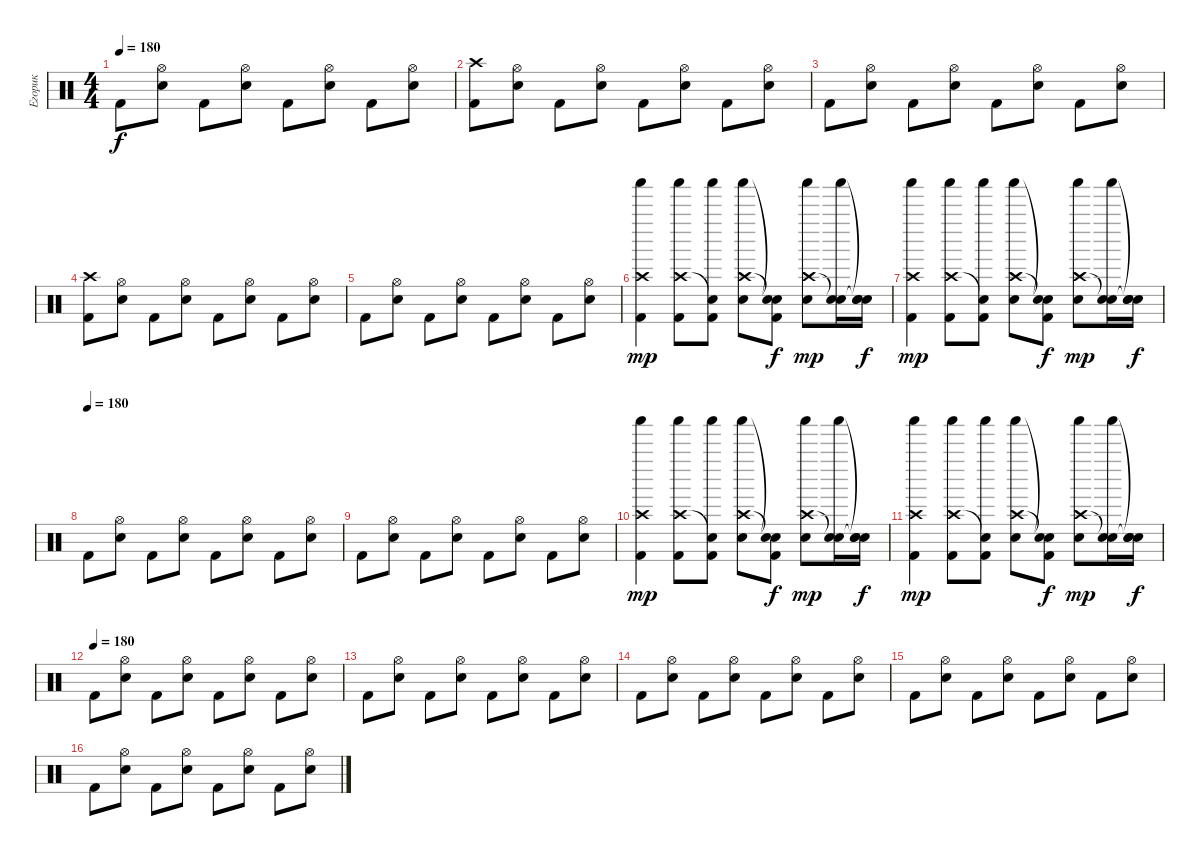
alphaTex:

\track ("Егорик" "Егорик") {instrument percussion}
\staff {score}
\articulation defaults
\ts (4 4)
\tempo 180
\clef neutral
\ks c "Kick (hit) 2".8{dy f}
("Hi-Hat (open)" "Electric Snare (hit)").8 "Kick (hit) 2".8 ("Hi-Hat (open)" "Electric Snare (hit)").8 "Kick (hit) 2".8 ("Hi-Hat (open)" "Electric Snare (hit)").8 "Kick (hit) 2".8 ("Hi-Hat (open)" "Electric Snare (hit)").8 |
("Crash high (hit)" "Kick (hit) 2").8 ("Hi-Hat (open)" "Electric Snare (hit)").8 "Kick (hit) 2".8 ("Hi-Hat (open)" "Electric Snare (hit)").8 "Kick (hit) 2".8 ("Hi-Hat (open)" "Electric Snare (hit)").8 "Kick (hit) 2".8 ("Hi-Hat (open)" "Electric Snare (hit)").8 |
"Kick (hit) 2".8 ("Hi-Hat (open)" "Electric Snare (hit)").8 "Kick (hit) 2".8 ("Hi-Hat (open)" "Electric Snare (hit)").8 "Kick (hit) 2".8 ("Hi-Hat (open)" "Electric Snare (hit)").8 "Kick (hit) 2".8 ("Hi-Hat (open)" "Electric Snare (hit)").8 |
("Crash high (hit)" "Kick (hit) 2").8 ("Hi-Hat (open)" "Electric Snare (hit)").8 "Kick (hit) 2".8 ("Hi-Hat (open)" "Electric Snare (hit)").8 "Kick (hit) 2".8 ("Hi-Hat (open)" "Electric Snare (hit)").8 "Kick (hit) 2".8 ("Hi-Hat (open)" "Electric Snare (hit)").8 |
"Kick (hit) 2".8 ("Hi-Hat (open)" "Electric Snare (hit)").8 "Kick (hit) 2".8 ("Hi-Hat (open)" "Electric Snare (hit)").8 "Kick (hit) 2".8 ("Hi-Hat (open)" "Electric Snare (hit)").8 "Kick (hit) 2".8 ("Hi-Hat (open)" "Electric Snare (hit)").8 |
("Crash high (hit)" "Shaker (hit)" "Kick (hit) 2").4{dy mp} ("Crash high (hit)" "Shaker (hit)" "Kick (hit) 2").8 ("Snare (hit)"{t} "Shaker (hit)" "Kick (hit) 2").8 ("Crash high (hit)" "Shaker (hit)" "Snare (hit) 2").8 ("Snare (hit)"{t} "Snare (hit)"{t} "Kick (hit) 2").8{dy f} ("Crash high (hit)" "Shaker (hit)" "Snare (hit) 2").8{dy mp} ("Snare (hit)"{t} "Shaker (hit)" "Snare (hit) 2").16 ("Snare (hit)"{t} "Snare (hit)"{t} "Snare (hit) 2").16{dy f} |
("Crash high (hit)" "Shaker (hit)" "Kick (hit) 2").4{dy mp} ("Crash high (hit)" "Shaker (hit)" "Kick (hit) 2").8 ("Snare (hit)"{t} "Shaker (hit)" "Kick (hit) 2").8 ("Crash high (hit)" "Shaker (hit)" "Snare (hit) 2").8 ("Snare (hit)"{t} "Snare (hit)"{t} "Kick (hit) 2").8{dy f} ("Crash high (hit)" "Shaker (hit)" "Snare (hit) 2").8{dy mp} ("Snare (hit)"{t} "Shaker (hit)" "Snare (hit) 2").16 ("Snare (hit)"{t} "Snare (hit)"{t} "Snare (hit) 2").16{dy f} |
\tempo (180)
"Kick (hit) 2".8 ("Hi-Hat (open)" "Electric Snare (hit)").8 "Kick (hit) 2".8 ("Hi-Hat (open)" "Electric Snare (hit)").8 "Kick (hit) 2".8 ("Hi-Hat (open)" "Electric Snare (hit)").8 "Kick (hit) 2".8 ("Hi-Hat (open)" "Electric Snare (hit)").8 |
"Kick (hit) 2".8 ("Hi-Hat (open)" "Electric Snare (hit)").8 "Kick (hit) 2".8 ("Hi-Hat (open)" "Electric Snare (hit)").8 "Kick (hit) 2".8 ("Hi-Hat (open)" "Electric Snare (hit)").8 "Kick (hit) 2".8 ("Hi-Hat (open)" "Electric Snare (hit)").8 |
("Crash high (hit)" "Shaker (hit)" "Kick (hit) 2").4{dy mp} ("Crash high (hit)" "Shaker (hit)" "Kick (hit) 2").8 ("Snare (hit)"{t} "Shaker (hit)" "Kick (hit) 2").8 ("Crash high (hit)" "Shaker (hit)" "Snare (hit) 2").8 ("Snare (hit)"{t} "Snare (hit)"{t} "Kick (hit) 2").8{dy f} ("Crash high (hit)" "Shaker (hit)" "Snare (hit) 2").8{dy mp} ("Snare (hit)"{t} "Shaker (hit)" "Snare (hit) 2").16 ("Snare (hit)"{t} "Snare (hit)"{t} "Snare (hit) 2").16{dy f} |
("Crash high (hit)" "Shaker (hit)" "Kick (hit) 2").4{dy mp} ("Crash high (hit)" "Shaker (hit)" "Kick (hit) 2").8 ("Snare (hit)"{t} "Shaker (hit)" "Kick (hit) 2").8 ("Crash high (hit)" "Shaker (hit)" "Snare (hit) 2").8 ("Snare (hit)"{t} "Snare (hit)"{t} "Kick (hit) 2").8{dy f} ("Crash high (hit)" "Shaker (hit)" "Snare (hit) 2").8{dy mp} ("Snare (hit)"{t} "Shaker (hit)" "Snare (hit) 2").16 ("Snare (hit)"{t} "Snare (hit)"{t} "Snare (hit) 2").16{dy f} |
\tempo (180)
"Kick (hit) 2".8 ("Hi-Hat (open)" "Electric Snare (hit)").8 "Kick (hit) 2".8 ("Hi-Hat (open)" "Electric Snare (hit)").8 "Kick (hit) 2".8 ("Hi-Hat (open)" "Electric Snare (hit)").8 "Kick (hit) 2".8 ("Hi-Hat (open)" "Electric Snare (hit)").8 |
"Kick (hit) 2".8 ("Hi-Hat (open)" "Electric Snare (hit)").8 "Kick (hit) 2".8 ("Hi-Hat (open)" "Electric Snare (hit)").8 "Kick (hit) 2".8 ("Hi-Hat (open)" "Electric Snare (hit)").8 "Kick (hit) 2".8 ("Hi-Hat (open)" "Electric Snare (hit)").8 |
"Kick (hit) 2".8 ("Hi-Hat (open)" "Electric Snare (hit)").8 "Kick (hit) 2".8 ("Hi-Hat (open)" "Electric Snare (hit)").8 "Kick (hit) 2".8 ("Hi-Hat (open)" "Electric Snare (hit)").8 "Kick (hit) 2".8 ("Hi-Hat (open)" "Electric Snare (hit)").8 |
"Kick (hit) 2".8 ("Hi-Hat (open)" "Electric Snare (hit)").8 "Kick (hit) 2".8 ("Hi-Hat (open)" "Electric Snare (hit)").8 "Kick (hit) 2".8 ("Hi-Hat (open)" "Electric Snare (hit)").8 "Kick (hit) 2".8 ("Hi-Hat (open)" "Electric Snare (hit)").8 |
"Kick (hit) 2".8 ("Hi-Hat (open)" "Electric Snare (hit)").8 "Kick (hit) 2".8 ("Hi-Hat (open)" "Electric Snare (hit)").8 "Kick (hit) 2".8 ("Hi-Hat (open)" "Electric Snare (hit)").8 "Kick (hit) 2".8 ("Hi-Hat (open)" "Electric Snare (hit)").8
